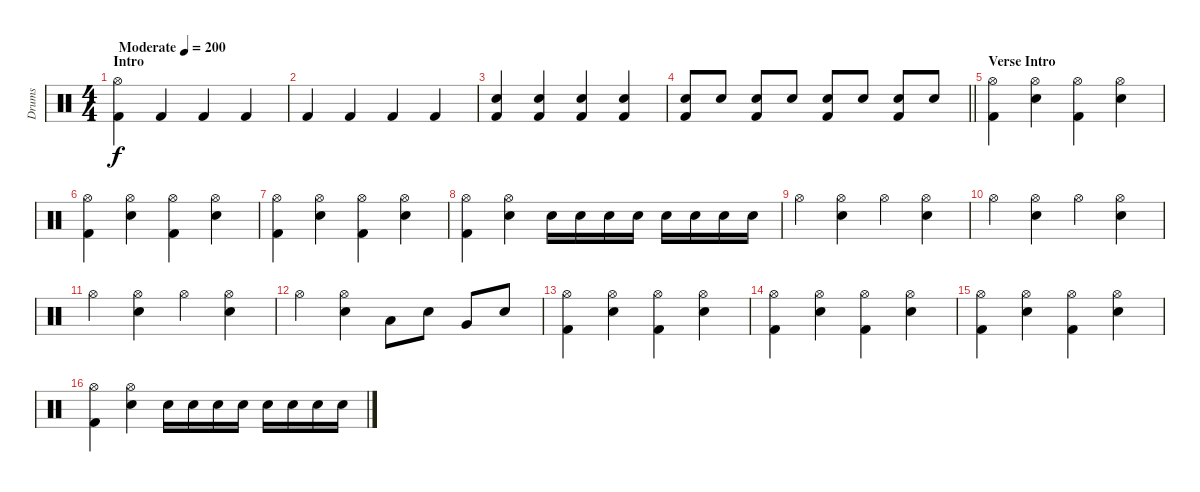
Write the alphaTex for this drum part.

\track ("Drums" "Drums") {instrument percussion}
\staff {score}
\articulation defaults
\ts (4 4)
\section ("" "Intro")
\tempo (200 "Moderate")
\clef neutral
\ks c
("Hi-Hat (open)" "Kick (hit) 2").4{dy f} "Kick (hit) 2".4 "Kick (hit) 2".4 "Kick (hit) 2".4 |
"Kick (hit) 2".4 "Kick (hit) 2".4 "Kick (hit) 2".4 "Kick (hit) 2".4 |
("Snare (hit) 2" "Kick (hit) 2").4 ("Snare (hit) 2" "Kick (hit) 2").4 ("Snare (hit) 2" "Kick (hit) 2").4 ("Snare (hit) 2" "Kick (hit) 2").4 |
\barLineRight lightlight
("Snare (hit) 2" "Kick (hit) 2").8 "Snare (hit) 2".8 ("Snare (hit) 2" "Kick (hit) 2").8 "Snare (hit) 2".8 ("Snare (hit) 2" "Kick (hit) 2").8 "Snare (hit) 2".8 ("Snare (hit) 2" "Kick (hit) 2").8 "Snare (hit) 2".8 |
\section ("" "Verse Intro")
("Hi-Hat (open)" "Kick (hit) 2").4 ("Hi-Hat (open)" "Snare (hit) 2").4 ("Hi-Hat (open)" "Kick (hit) 2").4 ("Hi-Hat (open)" "Snare (hit) 2").4 |
("Hi-Hat (open)" "Kick (hit) 2").4 ("Hi-Hat (open)" "Snare (hit) 2").4 ("Hi-Hat (open)" "Kick (hit) 2").4 ("Hi-Hat (open)" "Snare (hit) 2").4 |
("Hi-Hat (open)" "Kick (hit) 2").4 ("Hi-Hat (open)" "Snare (hit) 2").4 ("Hi-Hat (open)" "Kick (hit) 2").4 ("Hi-Hat (open)" "Snare (hit) 2").4 |
("Hi-Hat (open)" "Kick (hit) 2").4 ("Hi-Hat (open)" "Snare (hit) 2").4 "Snare (hit) 2".16 "Snare (hit) 2".16 "Snare (hit) 2".16 "Snare (hit) 2".16 "Snare (hit) 2".16 "Snare (hit) 2".16 "Snare (hit) 2".16 "Snare (hit) 2".16 |
"Hi-Hat (open)".4 ("Hi-Hat (open)" "Snare (hit) 2").4 "Hi-Hat (open)".4 ("Hi-Hat (open)" "Snare (hit) 2").4 |
"Hi-Hat (open)".4 ("Hi-Hat (open)" "Snare (hit) 2").4 "Hi-Hat (open)".4 ("Hi-Hat (open)" "Snare (hit) 2").4 |
"Hi-Hat (open)".4 ("Hi-Hat (open)" "Snare (hit) 2").4 "Hi-Hat (open)".4 ("Hi-Hat (open)" "Snare (hit) 2").4 |
"Hi-Hat (open)".4 ("Hi-Hat (open)" "Snare (hit) 2").4 "Low Floor Tom (hit)".8 "Snare (hit) 2".8 "Very Low Tom (hit)".8 "Snare (hit) 2".8 |
("Hi-Hat (open)" "Kick (hit) 2").4 ("Hi-Hat (open)" "Snare (hit) 2").4 ("Hi-Hat (open)" "Kick (hit) 2").4 ("Hi-Hat (open)" "Snare (hit) 2").4 |
("Hi-Hat (open)" "Kick (hit) 2").4 ("Hi-Hat (open)" "Snare (hit) 2").4 ("Hi-Hat (open)" "Kick (hit) 2").4 ("Hi-Hat (open)" "Snare (hit) 2").4 |
("Hi-Hat (open)" "Kick (hit) 2").4 ("Hi-Hat (open)" "Snare (hit) 2").4 ("Hi-Hat (open)" "Kick (hit) 2").4 ("Hi-Hat (open)" "Snare (hit) 2").4 |
("Hi-Hat (open)" "Kick (hit) 2").4 ("Hi-Hat (open)" "Snare (hit) 2").4 "Snare (hit) 2".16 "Snare (hit) 2".16 "Snare (hit) 2".16 "Snare (hit) 2".16 "Snare (hit) 2".16 "Snare (hit) 2".16 "Snare (hit) 2".16 "Snare (hit) 2".16
